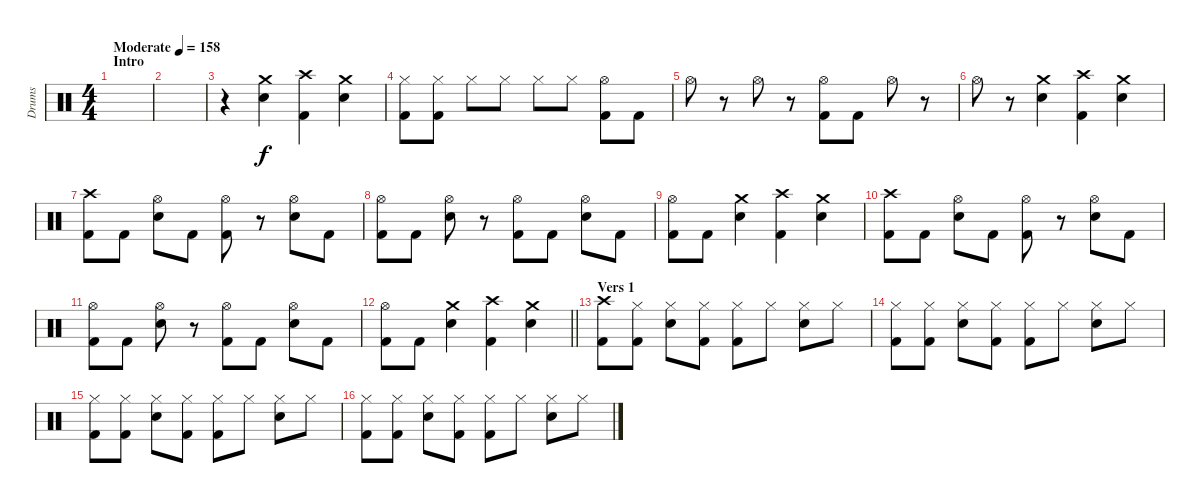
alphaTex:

\track ("Drums" "Drums") {instrument percussion}
\staff {score}
\articulation defaults
\ts (4 4)
\section ("" "Intro")
\tempo (158 "Moderate")
\clef neutral
\ks c
|
|
r.4 ("Crash medium (hit)" "Electric Snare (hit)").4 ("Crash high (hit)" "Kick (hit) 2").4 ("Crash medium (hit)" "Electric Snare (hit)").4 |
("Hi-Hat (closed)" "Kick (hit) 2").8 ("Hi-Hat (closed)" "Kick (hit) 2").8 "Hi-Hat (closed)".8 "Hi-Hat (closed)".8 "Hi-Hat (closed)".8 "Hi-Hat (closed)".8 ("Hi-Hat (open)" "Kick (hit) 2").8 "Kick (hit) 2".8 |
"Hi-Hat (open)".8 r.8 "Hi-Hat (open)".8 r.8 ("Hi-Hat (open)" "Kick (hit) 2").8 "Kick (hit) 2".8 "Hi-Hat (open)".8 r.8 |
"Hi-Hat (open)".8 r.8 ("Crash medium (hit)" "Electric Snare (hit)").4 ("Crash high (hit)" "Kick (hit) 2").4 ("Crash medium (hit)" "Electric Snare (hit)").4 |
("Crash high (hit)" "Kick (hit) 2").8 "Kick (hit) 2".8 ("Hi-Hat (open)" "Electric Snare (hit)").8 "Kick (hit) 2".8 ("Hi-Hat (open)" "Kick (hit) 2").8 r.8 ("Hi-Hat (open)" "Electric Snare (hit)").8 "Kick (hit) 2".8 |
("Hi-Hat (open)" "Kick (hit) 2").8 "Kick (hit) 2".8 ("Hi-Hat (open)" "Electric Snare (hit)").8 r.8 ("Hi-Hat (open)" "Kick (hit) 2").8 "Kick (hit) 2".8 ("Hi-Hat (open)" "Electric Snare (hit)").8 "Kick (hit) 2".8 |
("Hi-Hat (open)" "Kick (hit) 2").8 "Kick (hit) 2".8 ("Crash medium (hit)" "Electric Snare (hit)").4 ("Crash high (hit)" "Kick (hit) 2").4 ("Crash medium (hit)" "Electric Snare (hit)").4 |
("Crash high (hit)" "Kick (hit) 2").8 "Kick (hit) 2".8 ("Hi-Hat (open)" "Electric Snare (hit)").8 "Kick (hit) 2".8 ("Hi-Hat (open)" "Kick (hit) 2").8 r.8 ("Hi-Hat (open)" "Electric Snare (hit)").8 "Kick (hit) 2".8 |
("Hi-Hat (open)" "Kick (hit) 2").8 "Kick (hit) 2".8 ("Hi-Hat (open)" "Electric Snare (hit)").8 r.8 ("Hi-Hat (open)" "Kick (hit) 2").8 "Kick (hit) 2".8 ("Hi-Hat (open)" "Electric Snare (hit)").8 "Kick (hit) 2".8 |
\barLineRight lightlight
("Hi-Hat (open)" "Kick (hit) 2").8 "Kick (hit) 2".8 ("Crash medium (hit)" "Electric Snare (hit)").4 ("Crash high (hit)" "Kick (hit) 2").4 ("Crash medium (hit)" "Electric Snare (hit)").4 |
\section ("" "Vers 1")
("Crash high (hit)" "Kick (hit) 2").8 ("Hi-Hat (closed)" "Kick (hit) 2").8 ("Hi-Hat (closed)" "Electric Snare (hit)").8 ("Hi-Hat (closed)" "Kick (hit) 2").8 ("Hi-Hat (closed)" "Kick (hit) 2").8 "Hi-Hat (closed)".8 ("Hi-Hat (closed)" "Electric Snare (hit)").8 "Hi-Hat (closed)".8 |
("Hi-Hat (closed)" "Kick (hit) 2").8 ("Hi-Hat (closed)" "Kick (hit) 2").8 ("Hi-Hat (closed)" "Electric Snare (hit)").8 ("Hi-Hat (closed)" "Kick (hit) 2").8 ("Hi-Hat (closed)" "Kick (hit) 2").8 "Hi-Hat (closed)".8 ("Hi-Hat (closed)" "Electric Snare (hit)").8 "Hi-Hat (closed)".8 |
("Hi-Hat (closed)" "Kick (hit) 2").8 ("Hi-Hat (closed)" "Kick (hit) 2").8 ("Hi-Hat (closed)" "Electric Snare (hit)").8 ("Hi-Hat (closed)" "Kick (hit) 2").8 ("Hi-Hat (closed)" "Kick (hit) 2").8 "Hi-Hat (closed)".8 ("Hi-Hat (closed)" "Electric Snare (hit)").8 "Hi-Hat (closed)".8 |
("Hi-Hat (closed)" "Kick (hit) 2").8 ("Hi-Hat (closed)" "Kick (hit) 2").8 ("Hi-Hat (closed)" "Electric Snare (hit)").8 ("Hi-Hat (closed)" "Kick (hit) 2").8 ("Hi-Hat (closed)" "Kick (hit) 2").8 "Hi-Hat (closed)".8 ("Hi-Hat (closed)" "Electric Snare (hit)").8 "Hi-Hat (closed)".8
